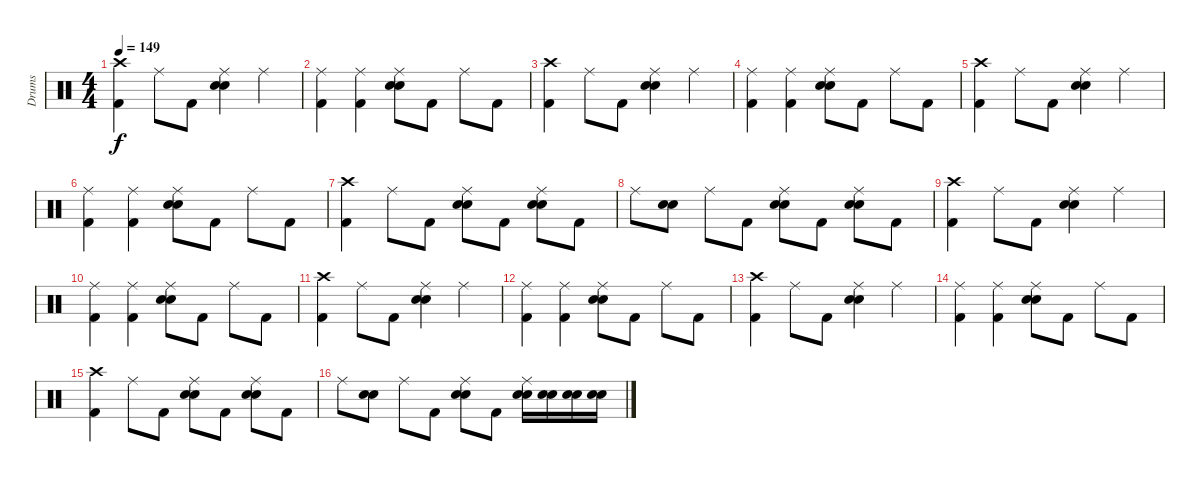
\track ("Drums" "Drums") {instrument percussion}
\staff {score}
\articulation defaults
\ts (4 4)
\tempo 149
\clef neutral
\ks c
("Kick (hit) 2" "Crash high (hit)").4{dy f} "Ride (middle)".8 "Kick (hit) 2".8 ("Electric Snare (hit)" "Snare (hit) 2" "Ride (middle)").4 "Ride (middle)".4 |
("Kick (hit) 2" "Ride (middle)").4 ("Kick (hit) 2" "Ride (middle)").4 ("Electric Snare (hit)" "Snare (hit) 2" "Ride (middle)").8 "Kick (hit) 2".8 "Ride (middle)".8 "Kick (hit) 2".8 |
("Kick (hit) 2" "Crash high (hit)").4 "Ride (middle)".8 "Kick (hit) 2".8 ("Electric Snare (hit)" "Snare (hit) 2" "Ride (middle)").4 "Ride (middle)".4 |
("Kick (hit) 2" "Ride (middle)").4 ("Kick (hit) 2" "Ride (middle)").4 ("Electric Snare (hit)" "Snare (hit) 2" "Ride (middle)").8 "Kick (hit) 2".8 "Ride (middle)".8 "Kick (hit) 2".8 |
("Kick (hit) 2" "Crash high (hit)").4 "Ride (middle)".8 "Kick (hit) 2".8 ("Electric Snare (hit)" "Snare (hit) 2" "Ride (middle)").4 "Ride (middle)".4 |
("Kick (hit) 2" "Ride (middle)").4 ("Kick (hit) 2" "Ride (middle)").4 ("Electric Snare (hit)" "Snare (hit) 2" "Ride (middle)").8 "Kick (hit) 2".8 "Ride (middle)".8 "Kick (hit) 2".8 |
("Kick (hit) 2" "Crash high (hit)").4 "Ride (middle)".8 "Kick (hit) 2".8 ("Electric Snare (hit)" "Snare (hit) 2" "Ride (middle)").8 "Kick (hit) 2".8 ("Electric Snare (hit)" "Snare (hit) 2" "Ride (middle)").8 "Kick (hit) 2".8 |
"Ride (middle)".8 ("Electric Snare (hit)" "Snare (hit) 2").8 "Ride (middle)".8 "Kick (hit) 2".8 ("Electric Snare (hit)" "Snare (hit) 2" "Ride (middle)").8 "Kick (hit) 2".8 ("Electric Snare (hit)" "Snare (hit) 2" "Ride (middle)").8 "Kick (hit) 2".8 |
("Kick (hit) 2" "Crash high (hit)").4 "Ride (middle)".8 "Kick (hit) 2".8 ("Electric Snare (hit)" "Snare (hit) 2" "Ride (middle)").4 "Ride (middle)".4 |
("Kick (hit) 2" "Ride (middle)").4 ("Kick (hit) 2" "Ride (middle)").4 ("Electric Snare (hit)" "Snare (hit) 2" "Ride (middle)").8 "Kick (hit) 2".8 "Ride (middle)".8 "Kick (hit) 2".8 |
("Kick (hit) 2" "Crash high (hit)").4 "Ride (middle)".8 "Kick (hit) 2".8 ("Electric Snare (hit)" "Snare (hit) 2" "Ride (middle)").4 "Ride (middle)".4 |
("Kick (hit) 2" "Ride (middle)").4 ("Kick (hit) 2" "Ride (middle)").4 ("Electric Snare (hit)" "Snare (hit) 2" "Ride (middle)").8 "Kick (hit) 2".8 "Ride (middle)".8 "Kick (hit) 2".8 |
("Kick (hit) 2" "Crash high (hit)").4 "Ride (middle)".8 "Kick (hit) 2".8 ("Electric Snare (hit)" "Snare (hit) 2" "Ride (middle)").4 "Ride (middle)".4 |
("Kick (hit) 2" "Ride (middle)").4 ("Kick (hit) 2" "Ride (middle)").4 ("Electric Snare (hit)" "Snare (hit) 2" "Ride (middle)").8 "Kick (hit) 2".8 "Ride (middle)".8 "Kick (hit) 2".8 |
("Kick (hit) 2" "Crash high (hit)").4 "Ride (middle)".8 "Kick (hit) 2".8 ("Electric Snare (hit)" "Snare (hit) 2" "Ride (middle)").8 "Kick (hit) 2".8 ("Electric Snare (hit)" "Snare (hit) 2" "Ride (middle)").8 "Kick (hit) 2".8 |
"Ride (middle)".8 ("Electric Snare (hit)" "Snare (hit) 2").8 "Ride (middle)".8 "Kick (hit) 2".8 ("Electric Snare (hit)" "Snare (hit) 2" "Ride (middle)").8 "Kick (hit) 2".8 ("Electric Snare (hit)" "Snare (hit) 2" "Ride (middle)").16 ("Electric Snare (hit)" "Snare (hit) 2").16 ("Electric Snare (hit)" "Snare (hit) 2").16 ("Electric Snare (hit)" "Snare (hit) 2").16
